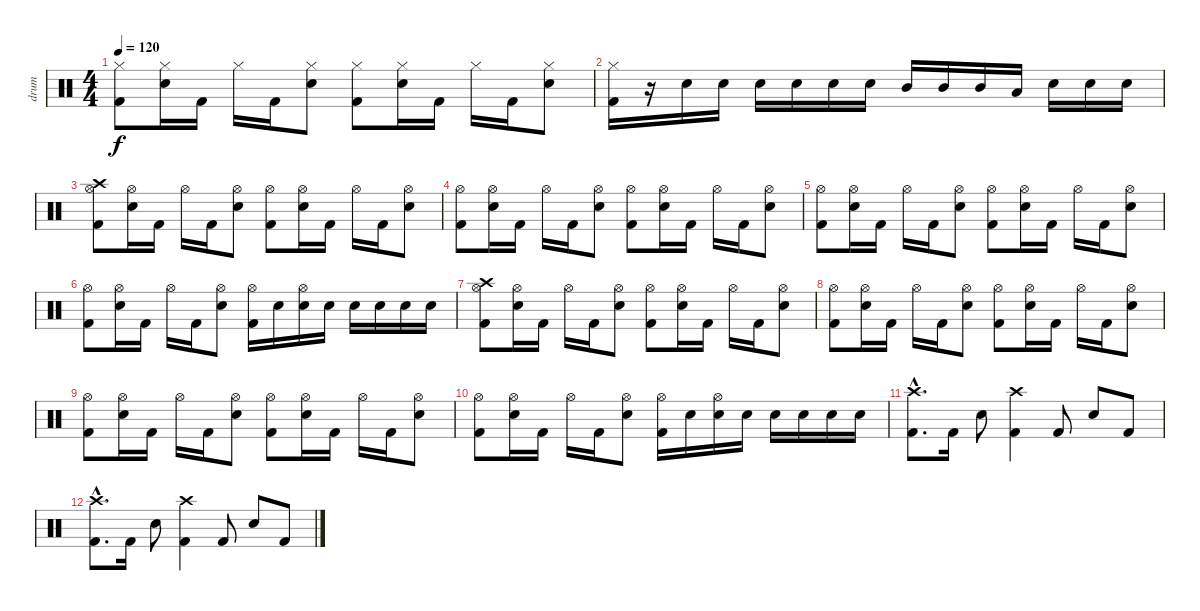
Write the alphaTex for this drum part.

\track ("drum" "drum") {instrument percussion}
\staff {score}
\articulation defaults
\ts (4 4)
\tempo 120
\clef neutral
\ks c
("Kick (hit) 2" "Hi-Hat (closed)").8{dy f} ("Snare (hit) 2" "Hi-Hat (closed)").16 "Kick (hit) 2".16 "Hi-Hat (closed)".16 "Kick (hit) 2".16 ("Snare (hit) 2" "Hi-Hat (closed)").8 ("Kick (hit) 2" "Hi-Hat (closed)").8 ("Snare (hit) 2" "Hi-Hat (closed)").16 "Kick (hit) 2".16 "Hi-Hat (closed)".16 "Kick (hit) 2".16 ("Snare (hit) 2" "Hi-Hat (closed)").8 |
("Kick (hit) 2" "Hi-Hat (closed)").16 r.16 "Snare (hit) 2".16 "Snare (hit) 2".16 "Snare (hit) 2".16 "Snare (hit) 2".16 "Snare (hit) 2".16 "Snare (hit) 2".16 "Mid Tom (hit)".16 "Mid Tom (hit)".16 "Mid Tom (hit)".16 "Low Tom (hit)".16 "Snare (hit) 2".16 "Snare (hit) 2".16 "Snare (hit) 2".16 |
("Crash high (hit)" "Kick (hit) 2" "Hi-Hat (open)").8 ("Snare (hit) 2" "Hi-Hat (open)").16 "Kick (hit) 2".16 "Hi-Hat (open)".16 "Kick (hit) 2".16 ("Snare (hit) 2" "Hi-Hat (open)").8 ("Kick (hit) 2" "Hi-Hat (open)").8 ("Snare (hit) 2" "Hi-Hat (open)").16 "Kick (hit) 2".16 "Hi-Hat (open)".16 "Kick (hit) 2".16 ("Snare (hit) 2" "Hi-Hat (open)").8 |
("Kick (hit) 2" "Hi-Hat (open)").8 ("Snare (hit) 2" "Hi-Hat (open)").16 "Kick (hit) 2".16 "Hi-Hat (open)".16 "Kick (hit) 2".16 ("Snare (hit) 2" "Hi-Hat (open)").8 ("Kick (hit) 2" "Hi-Hat (open)").8 ("Snare (hit) 2" "Hi-Hat (open)").16 "Kick (hit) 2".16 "Hi-Hat (open)".16 "Kick (hit) 2".16 ("Snare (hit) 2" "Hi-Hat (open)").8 |
("Kick (hit) 2" "Hi-Hat (open)").8 ("Snare (hit) 2" "Hi-Hat (open)").16 "Kick (hit) 2".16 "Hi-Hat (open)".16 "Kick (hit) 2".16 ("Snare (hit) 2" "Hi-Hat (open)").8 ("Kick (hit) 2" "Hi-Hat (open)").8 ("Snare (hit) 2" "Hi-Hat (open)").16 "Kick (hit) 2".16 "Hi-Hat (open)".16 "Kick (hit) 2".16 ("Snare (hit) 2" "Hi-Hat (open)").8 |
("Kick (hit) 2" "Hi-Hat (open)").8 ("Snare (hit) 2" "Hi-Hat (open)").16 "Kick (hit) 2".16 "Hi-Hat (open)".16 "Kick (hit) 2".16 ("Snare (hit) 2" "Hi-Hat (open)").8 ("Kick (hit) 2" "Hi-Hat (open)").16 "Snare (hit) 2".16 ("Snare (hit) 2" "Hi-Hat (open)").16 "Snare (hit) 2".16 "Snare (hit) 2".16 "Snare (hit) 2".16 "Snare (hit) 2".16 "Snare (hit) 2".16 |
("Crash high (hit)" "Kick (hit) 2" "Hi-Hat (open)").8 ("Snare (hit) 2" "Hi-Hat (open)").16 "Kick (hit) 2".16 "Hi-Hat (open)".16 "Kick (hit) 2".16 ("Snare (hit) 2" "Hi-Hat (open)").8 ("Kick (hit) 2" "Hi-Hat (open)").8 ("Snare (hit) 2" "Hi-Hat (open)").16 "Kick (hit) 2".16 "Hi-Hat (open)".16 "Kick (hit) 2".16 ("Snare (hit) 2" "Hi-Hat (open)").8 |
("Kick (hit) 2" "Hi-Hat (open)").8 ("Snare (hit) 2" "Hi-Hat (open)").16 "Kick (hit) 2".16 "Hi-Hat (open)".16 "Kick (hit) 2".16 ("Snare (hit) 2" "Hi-Hat (open)").8 ("Kick (hit) 2" "Hi-Hat (open)").8 ("Snare (hit) 2" "Hi-Hat (open)").16 "Kick (hit) 2".16 "Hi-Hat (open)".16 "Kick (hit) 2".16 ("Snare (hit) 2" "Hi-Hat (open)").8 |
("Kick (hit) 2" "Hi-Hat (open)").8 ("Snare (hit) 2" "Hi-Hat (open)").16 "Kick (hit) 2".16 "Hi-Hat (open)".16 "Kick (hit) 2".16 ("Snare (hit) 2" "Hi-Hat (open)").8 ("Kick (hit) 2" "Hi-Hat (open)").8 ("Snare (hit) 2" "Hi-Hat (open)").16 "Kick (hit) 2".16 "Hi-Hat (open)".16 "Kick (hit) 2".16 ("Snare (hit) 2" "Hi-Hat (open)").8 |
("Kick (hit) 2" "Hi-Hat (open)").8 ("Snare (hit) 2" "Hi-Hat (open)").16 "Kick (hit) 2".16 "Hi-Hat (open)".16 "Kick (hit) 2".16 ("Snare (hit) 2" "Hi-Hat (open)").8 ("Kick (hit) 2" "Hi-Hat (open)").16 "Snare (hit) 2".16 ("Snare (hit) 2" "Hi-Hat (open)").16 "Snare (hit) 2".16 "Snare (hit) 2".16 "Snare (hit) 2".16 "Snare (hit) 2".16 "Snare (hit) 2".16 |
("Crash high (hit)"{hac} "Kick (hit) 2"{hac}).8{d} "Kick (hit) 2".16 "Snare (hit) 2".8 ("Kick (hit) 2" "Crash high (hit)").4 "Kick (hit) 2".8 "Snare (hit) 2".8 "Kick (hit) 2".8 |
("Crash high (hit)"{hac} "Kick (hit) 2"{hac}).8{d} "Kick (hit) 2".16 "Snare (hit) 2".8 ("Kick (hit) 2" "Crash high (hit)").4 "Kick (hit) 2".8 "Snare (hit) 2".8 "Kick (hit) 2".8
